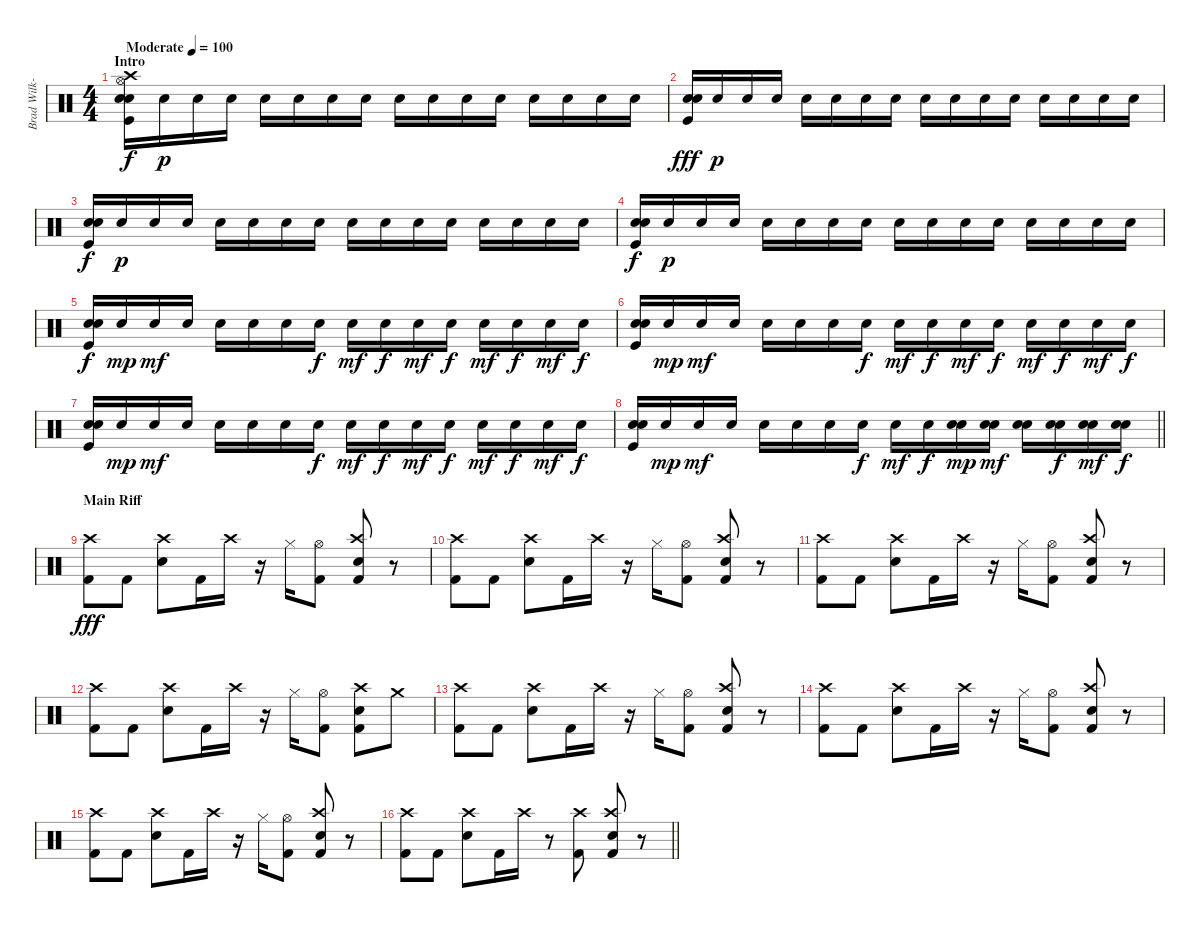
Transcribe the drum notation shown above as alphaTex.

\track ("Brad Wilk-Drums" "Brad Wilk-") {instrument percussion}
\staff {score}
\articulation defaults
\ts (4 4)
\section ("" "Intro")
\tempo (100 "Moderate")
\clef neutral
\ks c
("Kick (hit)" "Snare (hit) 2" "Electric Snare (hit)" "Hi-Hat (open)" "Crash high (hit)").16{dy f} "Electric Snare (hit)".16{dy p} "Electric Snare (hit)".16 "Electric Snare (hit)".16 "Electric Snare (hit)".16 "Electric Snare (hit)".16 "Electric Snare (hit)".16 "Electric Snare (hit)".16 "Electric Snare (hit)".16 "Electric Snare (hit)".16 "Electric Snare (hit)".16 "Electric Snare (hit)".16 "Electric Snare (hit)".16 "Electric Snare (hit)".16 "Electric Snare (hit)".16 "Electric Snare (hit)".16 |
("Kick (hit)" "Snare (hit) 2" "Electric Snare (hit)").16{dy fff} "Electric Snare (hit)".16{dy p} "Electric Snare (hit)".16 "Electric Snare (hit)".16 "Electric Snare (hit)".16 "Electric Snare (hit)".16 "Electric Snare (hit)".16 "Electric Snare (hit)".16 "Electric Snare (hit)".16 "Electric Snare (hit)".16 "Electric Snare (hit)".16 "Electric Snare (hit)".16 "Electric Snare (hit)".16 "Electric Snare (hit)".16 "Electric Snare (hit)".16 "Electric Snare (hit)".16 |
("Kick (hit)" "Snare (hit) 2" "Electric Snare (hit)").16{dy f} "Electric Snare (hit)".16{dy p} "Electric Snare (hit)".16 "Electric Snare (hit)".16 "Electric Snare (hit)".16 "Electric Snare (hit)".16 "Electric Snare (hit)".16 "Electric Snare (hit)".16 "Electric Snare (hit)".16 "Electric Snare (hit)".16 "Electric Snare (hit)".16 "Electric Snare (hit)".16 "Electric Snare (hit)".16 "Electric Snare (hit)".16 "Electric Snare (hit)".16 "Electric Snare (hit)".16 |
("Kick (hit)" "Snare (hit) 2" "Electric Snare (hit)").16{dy f} "Electric Snare (hit)".16{dy p} "Electric Snare (hit)".16 "Electric Snare (hit)".16 "Electric Snare (hit)".16 "Electric Snare (hit)".16 "Electric Snare (hit)".16 "Electric Snare (hit)".16 "Electric Snare (hit)".16 "Electric Snare (hit)".16 "Electric Snare (hit)".16 "Electric Snare (hit)".16 "Electric Snare (hit)".16 "Electric Snare (hit)".16 "Electric Snare (hit)".16 "Electric Snare (hit)".16 |
("Kick (hit)" "Snare (hit) 2" "Electric Snare (hit)").16{dy f} "Electric Snare (hit)".16{dy mp} "Electric Snare (hit)".16{dy mf} "Electric Snare (hit)".16 "Electric Snare (hit)".16 "Electric Snare (hit)".16 "Electric Snare (hit)".16 "Electric Snare (hit)".16{dy f} "Electric Snare (hit)".16{dy mf} "Electric Snare (hit)".16{dy f} "Electric Snare (hit)".16{dy mf} "Electric Snare (hit)".16{dy f} "Electric Snare (hit)".16{dy mf} "Electric Snare (hit)".16{dy f} "Electric Snare (hit)".16{dy mf} "Electric Snare (hit)".16{dy f} |
("Kick (hit)" "Snare (hit) 2" "Electric Snare (hit)").16 "Electric Snare (hit)".16{dy mp} "Electric Snare (hit)".16{dy mf} "Electric Snare (hit)".16 "Electric Snare (hit)".16 "Electric Snare (hit)".16 "Electric Snare (hit)".16 "Electric Snare (hit)".16{dy f} "Electric Snare (hit)".16{dy mf} "Electric Snare (hit)".16{dy f} "Electric Snare (hit)".16{dy mf} "Electric Snare (hit)".16{dy f} "Electric Snare (hit)".16{dy mf} "Electric Snare (hit)".16{dy f} "Electric Snare (hit)".16{dy mf} "Electric Snare (hit)".16{dy f} |
("Kick (hit)" "Snare (hit) 2" "Electric Snare (hit)").16 "Electric Snare (hit)".16{dy mp} "Electric Snare (hit)".16{dy mf} "Electric Snare (hit)".16 "Electric Snare (hit)".16 "Electric Snare (hit)".16 "Electric Snare (hit)".16 "Electric Snare (hit)".16{dy f} "Electric Snare (hit)".16{dy mf} "Electric Snare (hit)".16{dy f} "Electric Snare (hit)".16{dy mf} "Electric Snare (hit)".16{dy f} "Electric Snare (hit)".16{dy mf} "Electric Snare (hit)".16{dy f} "Electric Snare (hit)".16{dy mf} "Electric Snare (hit)".16{dy f} |
\barLineRight lightlight
("Kick (hit)" "Snare (hit) 2" "Electric Snare (hit)").16 "Electric Snare (hit)".16{dy mp} "Electric Snare (hit)".16{dy mf} "Electric Snare (hit)".16 "Electric Snare (hit)".16 "Electric Snare (hit)".16 "Electric Snare (hit)".16 "Electric Snare (hit)".16{dy f} "Electric Snare (hit)".16{dy mf} "Electric Snare (hit)".16{dy f} ("Electric Snare (hit)" "Snare (hit) 2").16{dy mp} ("Electric Snare (hit)" "Snare (hit) 2").16{dy mf} ("Electric Snare (hit)" "Snare (hit) 2").16 ("Electric Snare (hit)" "Snare (hit) 2").16{dy f} ("Electric Snare (hit)" "Snare (hit) 2").16{dy mf} ("Electric Snare (hit)" "Snare (hit) 2").16{dy f} |
\section ("" "Main Riff")
("Crash high (hit)" "Kick (hit) 2").8{dy fff} "Kick (hit) 2".8 ("Crash high (hit)" "Electric Snare (hit)").8 "Kick (hit) 2".16 "Crash high (hit)".16 r.16 "Hi-Hat (closed)".16 ("Hi-Hat (open)" "Kick (hit) 2").8 ("Crash high (hit)" "Electric Snare (hit)" "Kick (hit) 2").8 r.8 |
("Crash high (hit)" "Kick (hit) 2").8 "Kick (hit) 2".8 ("Crash high (hit)" "Electric Snare (hit)").8 "Kick (hit) 2".16 "Crash high (hit)".16 r.16 "Hi-Hat (closed)".16 ("Hi-Hat (open)" "Kick (hit) 2").8 ("Crash high (hit)" "Electric Snare (hit)" "Kick (hit) 2").8 r.8 |
("Crash high (hit)" "Kick (hit) 2").8 "Kick (hit) 2".8 ("Crash high (hit)" "Electric Snare (hit)").8 "Kick (hit) 2".16 "Crash high (hit)".16 r.16 "Hi-Hat (closed)".16 ("Hi-Hat (open)" "Kick (hit) 2").8 ("Crash high (hit)" "Electric Snare (hit)" "Kick (hit) 2").8 r.8 |
("Crash high (hit)" "Kick (hit) 2").8 "Kick (hit) 2".8 ("Crash high (hit)" "Electric Snare (hit)").8 "Kick (hit) 2".16 "Crash high (hit)".16 r.16 "Hi-Hat (closed)".16 ("Hi-Hat (open)" "Kick (hit) 2").8 ("Crash high (hit)" "Electric Snare (hit)" "Kick (hit) 2").8 "Crash medium (hit)".8 |
("Crash high (hit)" "Kick (hit) 2").8 "Kick (hit) 2".8 ("Crash high (hit)" "Electric Snare (hit)").8 "Kick (hit) 2".16 "Crash high (hit)".16 r.16 "Hi-Hat (closed)".16 ("Hi-Hat (open)" "Kick (hit) 2").8 ("Crash high (hit)" "Electric Snare (hit)" "Kick (hit) 2").8 r.8 |
("Crash high (hit)" "Kick (hit) 2").8 "Kick (hit) 2".8 ("Crash high (hit)" "Electric Snare (hit)").8 "Kick (hit) 2".16 "Crash high (hit)".16 r.16 "Hi-Hat (closed)".16 ("Hi-Hat (open)" "Kick (hit) 2").8 ("Crash high (hit)" "Electric Snare (hit)" "Kick (hit) 2").8 r.8 |
("Crash high (hit)" "Kick (hit) 2").8 "Kick (hit) 2".8 ("Crash high (hit)" "Electric Snare (hit)").8 "Kick (hit) 2".16 "Crash high (hit)".16 r.16 "Hi-Hat (closed)".16 ("Hi-Hat (open)" "Kick (hit) 2").8 ("Crash high (hit)" "Electric Snare (hit)" "Kick (hit) 2").8 r.8 |
\barLineRight lightlight
("Crash high (hit)" "Kick (hit) 2").8 "Kick (hit) 2".8 ("Crash high (hit)" "Electric Snare (hit)").8 "Kick (hit) 2".16 "Crash high (hit)".16 r.8 ("Crash high (hit)" "Kick (hit) 2").8 ("Crash high (hit)" "Electric Snare (hit)" "Kick (hit) 2").8 r.8
